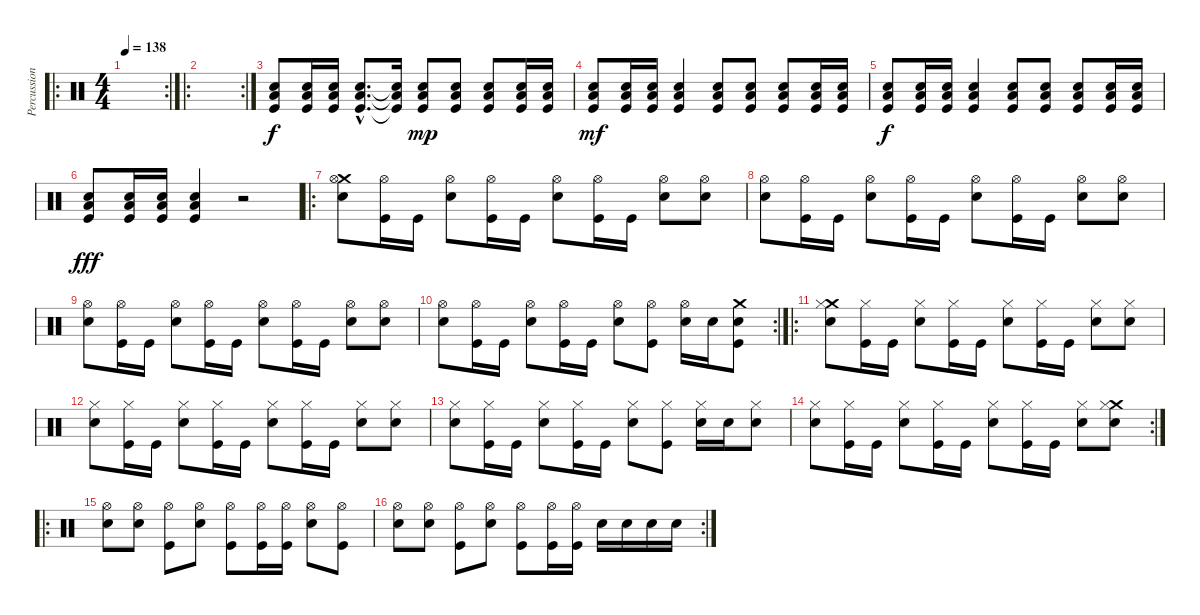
\track ("Percussion" "Percussion") {instrument percussion}
\staff {score}
\articulation defaults
\ro
\rc 2
\ts (4 4)
\tempo 138
\clef neutral
\ks c
|
\ro
\rc 2
|
("Snare (hit) 2" "Low Floor Tom (hit)" "Kick (hit)").8 ("Snare (hit) 2" "Low Floor Tom (hit)" "Kick (hit)").16 ("Snare (hit) 2" "Low Floor Tom (hit)" "Kick (hit)").16 ("Snare (hit) 2"{hac} "Low Floor Tom (hit)"{hac} "Kick (hit)"{hac}).8{d} ("Snare (hit) 2"{t} "Low Floor Tom (hit)"{t} "Kick (hit)"{t}).16{dy f} ("Snare (hit) 2" "Low Floor Tom (hit)" "Kick (hit)").8{dy mp} ("Snare (hit) 2" "Low Floor Tom (hit)" "Kick (hit)").8 ("Snare (hit) 2" "Low Floor Tom (hit)" "Kick (hit)").8 ("Snare (hit) 2" "Low Floor Tom (hit)" "Kick (hit)").16 ("Snare (hit) 2" "Low Floor Tom (hit)" "Kick (hit)").16 |
("Snare (hit) 2" "Low Floor Tom (hit)" "Kick (hit)").8{dy mf} ("Snare (hit) 2" "Low Floor Tom (hit)" "Kick (hit)").16 ("Snare (hit) 2" "Low Floor Tom (hit)" "Kick (hit)").16 ("Snare (hit) 2" "Low Floor Tom (hit)" "Kick (hit)").4 ("Snare (hit) 2" "Low Floor Tom (hit)" "Kick (hit)").8 ("Snare (hit) 2" "Low Floor Tom (hit)" "Kick (hit)").8 ("Snare (hit) 2" "Low Floor Tom (hit)" "Kick (hit)").8 ("Snare (hit) 2" "Low Floor Tom (hit)" "Kick (hit)").16 ("Snare (hit) 2" "Low Floor Tom (hit)" "Kick (hit)").16 |
("Snare (hit) 2" "Low Floor Tom (hit)" "Kick (hit)").8{dy f} ("Snare (hit) 2" "Low Floor Tom (hit)" "Kick (hit)").16 ("Snare (hit) 2" "Low Floor Tom (hit)" "Kick (hit)").16 ("Snare (hit) 2" "Low Floor Tom (hit)" "Kick (hit)").4 ("Snare (hit) 2" "Low Floor Tom (hit)" "Kick (hit)").8 ("Snare (hit) 2" "Low Floor Tom (hit)" "Kick (hit)").8 ("Snare (hit) 2" "Low Floor Tom (hit)" "Kick (hit)").8 ("Snare (hit) 2" "Low Floor Tom (hit)" "Kick (hit)").16 ("Snare (hit) 2" "Low Floor Tom (hit)" "Kick (hit)").16 |
("Snare (hit) 2" "Low Floor Tom (hit)" "Kick (hit)").8{dy fff} ("Snare (hit) 2" "Low Floor Tom (hit)" "Kick (hit)").16 ("Snare (hit) 2" "Low Floor Tom (hit)" "Kick (hit)").16 ("Snare (hit) 2" "Low Floor Tom (hit)" "Kick (hit)").4 r.2 |
\ro
("Crash medium (hit)" "Snare (hit) 2" "Hi-Hat (open)").8 ("Kick (hit)" "Hi-Hat (open)").16 "Kick (hit)".16 ("Snare (hit) 2" "Hi-Hat (open)").8 ("Kick (hit)" "Hi-Hat (open)").16 "Kick (hit)".16 ("Snare (hit) 2" "Hi-Hat (open)").8 ("Kick (hit)" "Hi-Hat (open)").16 "Kick (hit)".16 ("Snare (hit) 2" "Hi-Hat (open)").8 ("Snare (hit) 2" "Hi-Hat (open)").8 |
("Snare (hit) 2" "Hi-Hat (open)").8 ("Kick (hit)" "Hi-Hat (open)").16 "Kick (hit)".16 ("Snare (hit) 2" "Hi-Hat (open)").8 ("Kick (hit)" "Hi-Hat (open)").16 "Kick (hit)".16 ("Snare (hit) 2" "Hi-Hat (open)").8 ("Kick (hit)" "Hi-Hat (open)").16 "Kick (hit)".16 ("Snare (hit) 2" "Hi-Hat (open)").8 ("Snare (hit) 2" "Hi-Hat (open)").8 |
("Snare (hit) 2" "Hi-Hat (open)").8 ("Kick (hit)" "Hi-Hat (open)").16 "Kick (hit)".16 ("Snare (hit) 2" "Hi-Hat (open)").8 ("Kick (hit)" "Hi-Hat (open)").16 "Kick (hit)".16 ("Snare (hit) 2" "Hi-Hat (open)").8 ("Kick (hit)" "Hi-Hat (open)").16 "Kick (hit)".16 ("Snare (hit) 2" "Hi-Hat (open)").8 ("Snare (hit) 2" "Hi-Hat (open)").8 |
\rc 2
("Snare (hit) 2" "Hi-Hat (open)").8 ("Kick (hit)" "Hi-Hat (open)").16 "Kick (hit)".16 ("Snare (hit) 2" "Hi-Hat (open)").8 ("Kick (hit)" "Hi-Hat (open)").16 "Kick (hit)".16 ("Snare (hit) 2" "Hi-Hat (open)").8 ("Kick (hit)" "Hi-Hat (open)").8 ("Snare (hit) 2" "Hi-Hat (open)").16 "Snare (hit) 2".16 ("Crash medium (hit)" "Snare (hit) 2" "Kick (hit)").8 |
\ro
("Crash medium (hit)" "Snare (hit) 2" "Hi-Hat (closed)").8 ("Kick (hit)" "Hi-Hat (closed)").16 "Kick (hit)".16 ("Snare (hit) 2" "Hi-Hat (closed)").8 ("Kick (hit)" "Hi-Hat (closed)").16 "Kick (hit)".16 ("Snare (hit) 2" "Hi-Hat (closed)").8 ("Kick (hit)" "Hi-Hat (closed)").16 "Kick (hit)".16 ("Snare (hit) 2" "Hi-Hat (closed)").8 ("Snare (hit) 2" "Hi-Hat (closed)").8 |
("Snare (hit) 2" "Hi-Hat (closed)").8 ("Kick (hit)" "Hi-Hat (closed)").16 "Kick (hit)".16 ("Snare (hit) 2" "Hi-Hat (closed)").8 ("Kick (hit)" "Hi-Hat (closed)").16 "Kick (hit)".16 ("Snare (hit) 2" "Hi-Hat (closed)").8 ("Kick (hit)" "Hi-Hat (closed)").16 "Kick (hit)".16 ("Snare (hit) 2" "Hi-Hat (closed)").8 ("Snare (hit) 2" "Hi-Hat (closed)").8 |
("Snare (hit) 2" "Hi-Hat (closed)").8 ("Kick (hit)" "Hi-Hat (closed)").16 "Kick (hit)".16 ("Snare (hit) 2" "Hi-Hat (closed)").8 ("Kick (hit)" "Hi-Hat (closed)").16 "Kick (hit)".16 ("Snare (hit) 2" "Hi-Hat (closed)").8 ("Kick (hit)" "Hi-Hat (closed)").8 ("Snare (hit) 2" "Hi-Hat (closed)").16 "Snare (hit) 2".16 ("Snare (hit) 2" "Hi-Hat (closed)").8 |
\rc 2
("Snare (hit) 2" "Hi-Hat (closed)").8 ("Kick (hit)" "Hi-Hat (closed)").16 "Kick (hit)".16 ("Snare (hit) 2" "Hi-Hat (closed)").8 ("Kick (hit)" "Hi-Hat (closed)").16 "Kick (hit)".16 ("Snare (hit) 2" "Hi-Hat (closed)").8 ("Kick (hit)" "Hi-Hat (closed)").16 "Kick (hit)".16 ("Snare (hit) 2" "Hi-Hat (closed)").8 ("Crash medium (hit)" "Snare (hit) 2" "Hi-Hat (closed)").8 |
\ro
("Snare (hit) 2" "Hi-Hat (open)").8 ("Snare (hit) 2" "Hi-Hat (open)").8 ("Kick (hit)" "Hi-Hat (open)").8 ("Snare (hit) 2" "Hi-Hat (open)").8 ("Kick (hit)" "Hi-Hat (open)").8 ("Kick (hit)" "Hi-Hat (open)").16 ("Kick (hit)" "Hi-Hat (open)").16 ("Snare (hit) 2" "Hi-Hat (open)").8 ("Kick (hit)" "Hi-Hat (open)").8 |
\rc 2
("Snare (hit) 2" "Hi-Hat (open)").8 ("Snare (hit) 2" "Hi-Hat (open)").8 ("Kick (hit)" "Hi-Hat (open)").8 ("Snare (hit) 2" "Hi-Hat (open)").8 ("Kick (hit)" "Hi-Hat (open)").8 ("Kick (hit)" "Hi-Hat (open)").16 ("Kick (hit)" "Hi-Hat (open)").16 "Snare (hit) 2".16 "Snare (hit) 2".16 "Snare (hit) 2".16 "Snare (hit) 2".16
